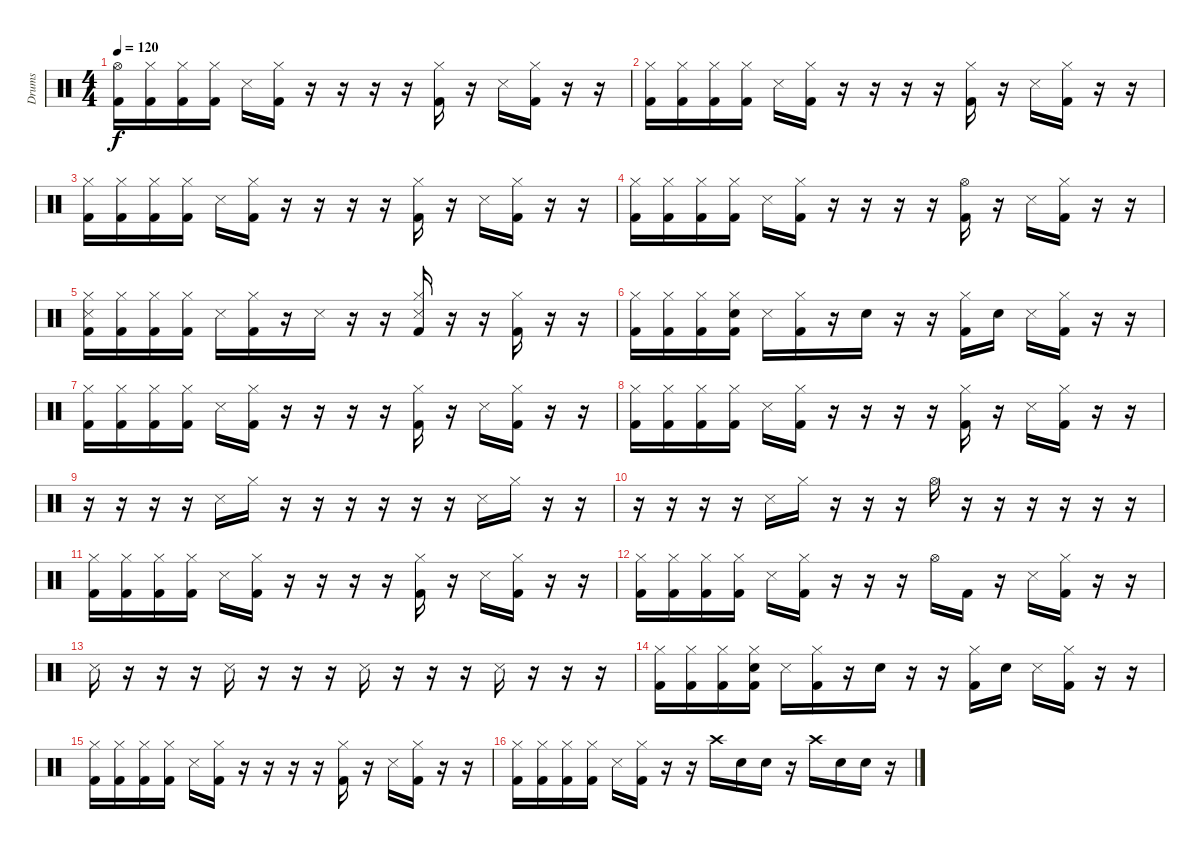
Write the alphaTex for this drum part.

\track ("Drums" "Drums") {instrument percussion}
\staff {score}
\articulation defaults
\ts (4 4)
\tempo 120
\clef neutral
\ks c
("Hi-Hat (open)" "Kick (hit) 2").16{dy f} ("Hi-Hat (closed)" "Kick (hit) 2").16 ("Hi-Hat (closed)" "Kick (hit) 2").16 ("Hi-Hat (closed)" "Kick (hit) 2").16 "Snare (side stick) 3".16 ("Hi-Hat (closed)" "Kick (hit) 2").16 r.16 r.16 r.16 r.16 ("Hi-Hat (closed)" "Kick (hit) 2").16 r.16 "Snare (side stick) 3".16 ("Hi-Hat (closed)" "Kick (hit) 2").16 r.16 r.16 |
("Hi-Hat (closed)" "Kick (hit) 2").16 ("Hi-Hat (closed)" "Kick (hit) 2").16 ("Hi-Hat (closed)" "Kick (hit) 2").16 ("Hi-Hat (closed)" "Kick (hit) 2").16 "Snare (side stick) 3".16 ("Hi-Hat (closed)" "Kick (hit) 2").16 r.16 r.16 r.16 r.16 ("Hi-Hat (closed)" "Kick (hit) 2").16 r.16 "Snare (side stick) 3".16 ("Hi-Hat (closed)" "Kick (hit) 2").16 r.16 r.16 |
("Hi-Hat (closed)" "Kick (hit) 2").16 ("Hi-Hat (closed)" "Kick (hit) 2").16 ("Hi-Hat (closed)" "Kick (hit) 2").16 ("Hi-Hat (closed)" "Kick (hit) 2").16 "Snare (side stick) 3".16 ("Hi-Hat (closed)" "Kick (hit) 2").16 r.16 r.16 r.16 r.16 ("Hi-Hat (closed)" "Kick (hit) 2").16 r.16 "Snare (side stick) 3".16 ("Hi-Hat (closed)" "Kick (hit) 2").16 r.16 r.16 |
("Hi-Hat (closed)" "Kick (hit) 2").16 ("Hi-Hat (closed)" "Kick (hit) 2").16 ("Hi-Hat (closed)" "Kick (hit) 2").16 ("Hi-Hat (closed)" "Kick (hit) 2").16 "Snare (side stick) 3".16 ("Hi-Hat (closed)" "Kick (hit) 2").16 r.16 r.16 r.16 r.16 ("Hi-Hat (open)" "Kick (hit) 2").16 r.16 "Snare (side stick) 3".16 ("Hi-Hat (closed)" "Kick (hit) 2").16 r.16 r.16 |
("Hi-Hat (closed)" "Snare (side stick) 3" "Kick (hit) 2").16 ("Hi-Hat (closed)" "Kick (hit) 2").16 ("Hi-Hat (closed)" "Kick (hit) 2").16 ("Hi-Hat (closed)" "Kick (hit) 2").16 "Snare (side stick) 3".16 ("Hi-Hat (closed)" "Kick (hit) 2").16 r.16 "Snare (side stick) 3".16 r.16 r.16 ("Hi-Hat (closed)" "Snare (side stick) 3" "Kick (hit) 2").16 r.16 r.16 ("Hi-Hat (closed)" "Kick (hit) 2").16 r.16 r.16 |
("Hi-Hat (closed)" "Kick (hit) 2").16 ("Hi-Hat (closed)" "Kick (hit) 2").16 ("Hi-Hat (closed)" "Kick (hit) 2").16 ("Hi-Hat (closed)" "Hand Clap (hit)" "Kick (hit) 2").16 "Snare (side stick) 3".16 ("Hi-Hat (closed)" "Kick (hit) 2").16 r.16 "Hand Clap (hit)".16 r.16 r.16 ("Hi-Hat (closed)" "Kick (hit) 2").16 "Hand Clap (hit)".16 "Snare (side stick) 3".16 ("Hi-Hat (closed)" "Kick (hit) 2").16 r.16 r.16 |
("Hi-Hat (closed)" "Kick (hit) 2").16 ("Hi-Hat (closed)" "Kick (hit) 2").16 ("Hi-Hat (closed)" "Kick (hit) 2").16 ("Hi-Hat (closed)" "Kick (hit) 2").16 "Snare (side stick) 3".16 ("Hi-Hat (closed)" "Kick (hit) 2").16 r.16 r.16 r.16 r.16 ("Hi-Hat (closed)" "Kick (hit) 2").16 r.16 "Snare (side stick) 3".16 ("Hi-Hat (closed)" "Kick (hit) 2").16 r.16 r.16 |
("Hi-Hat (closed)" "Kick (hit) 2").16 ("Hi-Hat (closed)" "Kick (hit) 2").16 ("Hi-Hat (closed)" "Kick (hit) 2").16 ("Hi-Hat (closed)" "Kick (hit) 2").16 "Snare (side stick) 3".16 ("Hi-Hat (closed)" "Kick (hit) 2").16 r.16 r.16 r.16 r.16 ("Hi-Hat (closed)" "Kick (hit) 2").16 r.16 "Snare (side stick) 3".16 ("Hi-Hat (closed)" "Kick (hit) 2").16 r.16 r.16 |
r.16 r.16 r.16 r.16 "Snare (side stick) 3".16 "Hi-Hat (closed)".16 r.16 r.16 r.16 r.16 r.16 r.16 "Snare (side stick) 3".16 "Hi-Hat (closed)".16 r.16 r.16 |
r.16 r.16 r.16 r.16 "Snare (side stick) 3".16 "Hi-Hat (closed)".16 r.16 r.16 r.16 "Hi-Hat (open)".16 r.16 r.16 r.16 r.16 r.16 r.16 |
("Hi-Hat (closed)" "Kick (hit) 2").16 ("Hi-Hat (closed)" "Kick (hit) 2").16 ("Hi-Hat (closed)" "Kick (hit) 2").16 ("Hi-Hat (closed)" "Kick (hit) 2").16 "Snare (side stick) 3".16 ("Hi-Hat (closed)" "Kick (hit) 2").16 r.16 r.16 r.16 r.16 ("Hi-Hat (closed)" "Kick (hit) 2").16 r.16 "Snare (side stick) 3".16 ("Hi-Hat (closed)" "Kick (hit) 2").16 r.16 r.16 |
("Hi-Hat (closed)" "Kick (hit) 2").16 ("Hi-Hat (closed)" "Kick (hit) 2").16 ("Hi-Hat (closed)" "Kick (hit) 2").16 ("Hi-Hat (closed)" "Kick (hit) 2").16 "Snare (side stick) 3".16 ("Hi-Hat (closed)" "Kick (hit) 2").16 r.16 r.16 r.16 "Hi-Hat (open)".16 "Kick (hit) 2".16 r.16 "Snare (side stick) 3".16 ("Hi-Hat (closed)" "Kick (hit) 2").16 r.16 r.16 |
"Snare (side stick) 3".16 r.16 r.16 r.16 "Snare (side stick) 3".16 r.16 r.16 r.16 "Snare (side stick) 3".16 r.16 r.16 r.16 "Snare (side stick) 3".16 r.16 r.16 r.16 |
("Hi-Hat (closed)" "Kick (hit) 2").16 ("Hi-Hat (closed)" "Kick (hit) 2").16 ("Hi-Hat (closed)" "Kick (hit) 2").16 ("Hi-Hat (closed)" "Hand Clap (hit)" "Kick (hit) 2").16 "Snare (side stick) 3".16 ("Hi-Hat (closed)" "Kick (hit) 2").16 r.16 "Hand Clap (hit)".16 r.16 r.16 ("Hi-Hat (closed)" "Kick (hit) 2").16 "Hand Clap (hit)".16 "Snare (side stick) 3".16 ("Hi-Hat (closed)" "Kick (hit) 2").16 r.16 r.16 |
("Hi-Hat (closed)" "Kick (hit) 2").16 ("Hi-Hat (closed)" "Kick (hit) 2").16 ("Hi-Hat (closed)" "Kick (hit) 2").16 ("Hi-Hat (closed)" "Kick (hit) 2").16 "Snare (side stick) 3".16 ("Hi-Hat (closed)" "Kick (hit) 2").16 r.16 r.16 r.16 r.16 ("Hi-Hat (closed)" "Kick (hit) 2").16 r.16 "Snare (side stick) 3".16 ("Hi-Hat (closed)" "Kick (hit) 2").16 r.16 r.16 |
("Hi-Hat (closed)" "Kick (hit) 2").16 ("Hi-Hat (closed)" "Kick (hit) 2").16 ("Hi-Hat (closed)" "Kick (hit) 2").16 ("Hi-Hat (closed)" "Kick (hit) 2").16 "Snare (side stick) 3".16 ("Hi-Hat (closed)" "Kick (hit) 2").16 r.16 r.16 "Crash high (hit)".16 "Electric Snare (hit)".16 "Electric Snare (hit)".16 r.16 "Crash high (hit)".16 "Electric Snare (hit)".16 "Electric Snare (hit)".16 r.16
